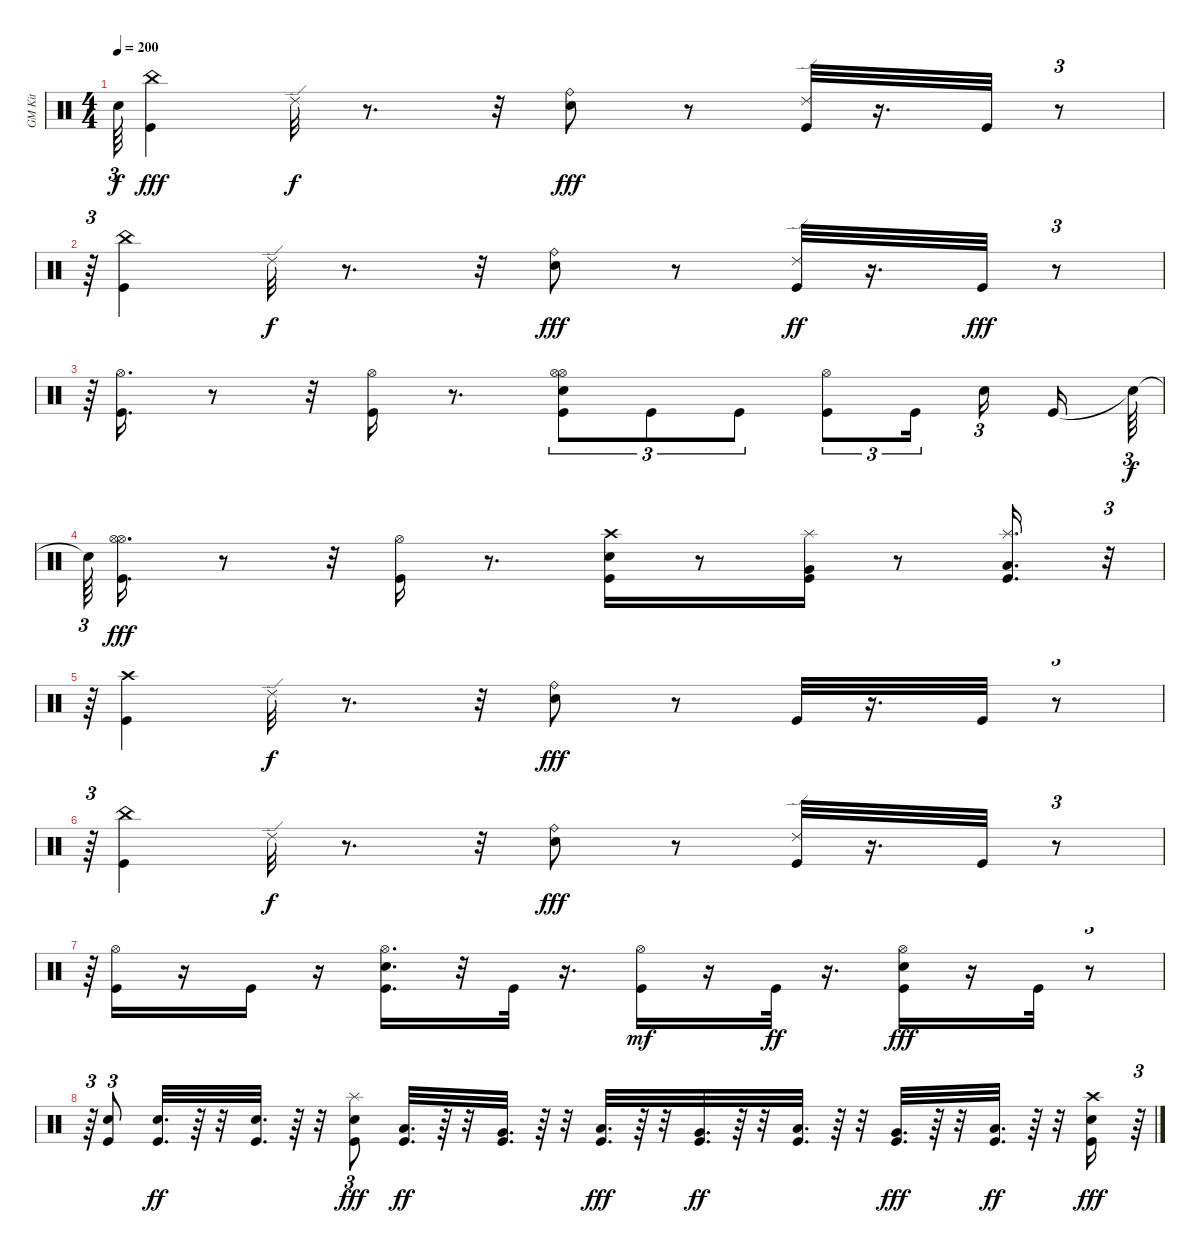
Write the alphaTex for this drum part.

\track ("GM Kit" "GM Kit") {instrument percussion}
\staff {score}
\articulation defaults
\ts (4 4)
\tempo 200
\clef neutral
\ks c "Snare (hit)"{t}.64{tu (3 2) dy f}
("Kick (hit)" "China (hit)").4{dy fff} "Ride (edge) 2".32{dy f} r.8{d} r.32 ("Snare (hit) 2" "Ride (bell)").8{dy fff} r.8 ("Kick (hit)" "Ride (edge) 2").32 r.16{d} "Kick (hit)".32 r.8{tu (3 2)} |
r.64{tu (3 2)} ("Kick (hit)" "China (hit)").4 "Ride (edge) 2".32{dy f} r.8{d} r.32 ("Snare (hit) 2" "Ride (bell)").8{dy fff} r.8 ("Kick (hit)" "Ride (edge) 2").32{dy ff} r.16{d} "Kick (hit)".32{dy fff} r.8{tu (3 2)} |
r.64{tu (3 2)} ("Kick (hit)" "Hi-Hat (open)").16{d} r.8 r.32 ("Kick (hit)" "Hi-Hat (open)").16 r.8{d} ("Kick (hit)" "Snare (hit) 2" "Hi-Hat (open)" "Hi-Hat (open)").8{tu (3 2)} "Kick (hit)".8{tu (3 2)} "Kick (hit)".8{tu (3 2)} ("Kick (hit)" "Hi-Hat (open)").8{tu (3 2)} "Kick (hit)".16{tu (3 2) beam splitsecondary} "Snare (hit) 2".16{tu (3 2) beam splitsecondary} "Kick (hit)".16 "Snare (hit)"{t}.64{tu (3 2) dy f} |
"Snare (hit)"{t}.64{tu (3 2)} ("Kick (hit)" "Hi-Hat (open)" "Hi-Hat (open)").16{d dy fff} r.8 r.32 ("Kick (hit)" "Hi-Hat (open)").16 r.8{d} ("Kick (hit)" "Snare (hit) 2" "Crash high (hit)").16 r.8 ("Kick (hit)" "Very Low Tom (hit)" "Splash (hit)").16 r.8 ("Kick (hit)" "Low Floor Tom (hit)" "Splash (hit)").16{d} r.32{tu (3 2)} |
r.64{tu (3 2)} ("Kick (hit)" "Crash high (hit)").4 "Ride (edge) 2".32{dy f} r.8{d} r.32 ("Snare (hit) 2" "Ride (bell)").8{dy fff} r.8 "Kick (hit)".32 r.16{d} "Kick (hit)".32 r.8{tu (3 2)} |
r.64{tu (3 2)} ("Kick (hit)" "China (hit)").4 "Ride (edge) 2".32{dy f} r.8{d} r.32 ("Snare (hit) 2" "Ride (bell)").8{dy fff} r.8 ("Kick (hit)" "Ride (edge) 2").32 r.16{d} "Kick (hit)".32 r.8{tu (3 2)} |
r.64{tu (3 2)} ("Kick (hit)" "Hi-Hat (open)").16 r.16 "Kick (hit)".16 r.16 ("Kick (hit)" "Snare (hit) 2" "Hi-Hat (open)").16{d} r.32 "Kick (hit)".32 r.16{d} ("Kick (hit)" "Hi-Hat (open)").16{dy mf} r.16 "Kick (hit)".32{dy ff} r.16{d} ("Kick (hit)" "Snare (hit) 2" "Hi-Hat (open)").16{dy fff} r.16 "Kick (hit)".32 r.8{tu (3 2)} |
r.64{tu (3 2)} ("Kick (hit)" "Snare (hit) 2").8{tu (3 2)} ("Kick (hit)" "Snare (hit) 2").32{d dy ff} r.64 r.32 ("Kick (hit)" "Snare (hit) 2").32{d} r.64 r.32 ("Kick (hit)" "Snare (hit) 2" "Splash (hit)").8{tu (3 2) dy fff} ("Kick (hit)" "Low Tom (hit)").32{d dy ff} r.64 r.32 ("Kick (hit)" "Very Low Tom (hit)").32{d} r.64 r.32 ("Kick (hit)" "Low Tom (hit)").32{d dy fff} r.64 r.32 ("Kick (hit)" "Very Low Tom (hit)").32{d dy ff} r.64 r.32 ("Kick (hit)" "Low Floor Tom (hit)").32{d} r.64 r.32 ("Kick (hit)" "Very Low Tom (hit)").32{d dy fff} r.64 r.32 ("Kick (hit)" "Low Tom (hit)").32{d dy ff} r.64 r.32 ("Kick (hit)" "Snare (hit) 2" "Crash high (hit)").16{dy fff} r.64{tu (3 2)}
